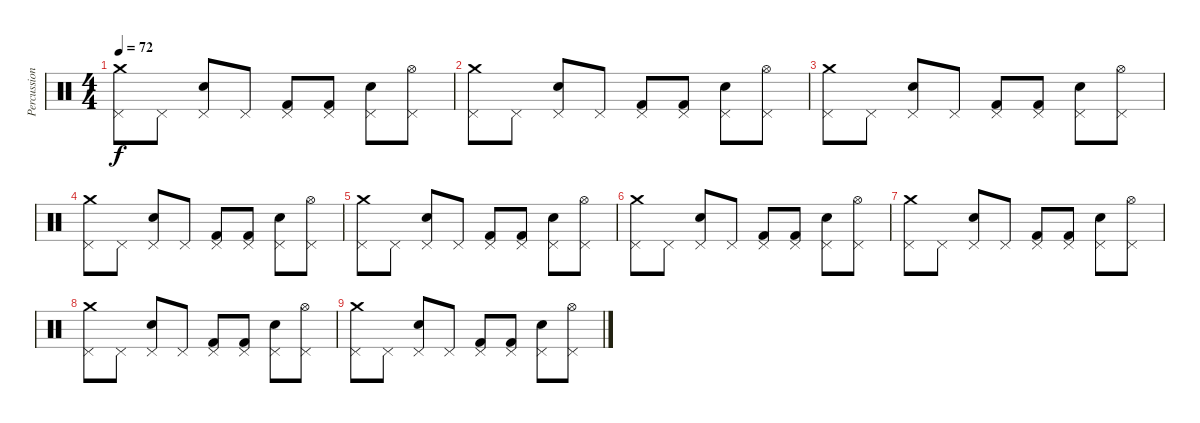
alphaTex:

\track ("Percussion" "Percussion") {instrument percussion}
\staff {score}
\articulation defaults
\ts (4 4)
\tempo 72
\clef neutral
\ks c
("Pedal Hi-Hat (hit)" "Crash medium (hit)").8{dy f} "Pedal Hi-Hat (hit)".8 ("Pedal Hi-Hat (hit)" "Snare (hit) 2").8 "Pedal Hi-Hat (hit)".8 ("Pedal Hi-Hat (hit)" "Kick (hit) 2").8 ("Pedal Hi-Hat (hit)" "Kick (hit) 2").8 ("Pedal Hi-Hat (hit)" "Snare (hit) 2").8 ("Pedal Hi-Hat (hit)" "Hi-Hat (open)").8 |
("Pedal Hi-Hat (hit)" "Crash medium (hit)").8 "Pedal Hi-Hat (hit)".8 ("Pedal Hi-Hat (hit)" "Snare (hit) 2").8 "Pedal Hi-Hat (hit)".8 ("Pedal Hi-Hat (hit)" "Kick (hit) 2").8 ("Pedal Hi-Hat (hit)" "Kick (hit) 2").8 ("Pedal Hi-Hat (hit)" "Snare (hit) 2").8 ("Pedal Hi-Hat (hit)" "Hi-Hat (open)").8 |
("Pedal Hi-Hat (hit)" "Crash medium (hit)").8 "Pedal Hi-Hat (hit)".8 ("Pedal Hi-Hat (hit)" "Snare (hit) 2").8 "Pedal Hi-Hat (hit)".8 ("Pedal Hi-Hat (hit)" "Kick (hit) 2").8 ("Pedal Hi-Hat (hit)" "Kick (hit) 2").8 ("Pedal Hi-Hat (hit)" "Snare (hit) 2").8 ("Pedal Hi-Hat (hit)" "Hi-Hat (open)").8 |
("Pedal Hi-Hat (hit)" "Crash medium (hit)").8 "Pedal Hi-Hat (hit)".8 ("Pedal Hi-Hat (hit)" "Snare (hit) 2").8 "Pedal Hi-Hat (hit)".8 ("Pedal Hi-Hat (hit)" "Kick (hit) 2").8 ("Pedal Hi-Hat (hit)" "Kick (hit) 2").8 ("Pedal Hi-Hat (hit)" "Snare (hit) 2").8 ("Pedal Hi-Hat (hit)" "Hi-Hat (open)").8 |
("Pedal Hi-Hat (hit)" "Crash medium (hit)").8 "Pedal Hi-Hat (hit)".8 ("Pedal Hi-Hat (hit)" "Snare (hit) 2").8 "Pedal Hi-Hat (hit)".8 ("Pedal Hi-Hat (hit)" "Kick (hit) 2").8 ("Pedal Hi-Hat (hit)" "Kick (hit) 2").8 ("Pedal Hi-Hat (hit)" "Snare (hit) 2").8 ("Pedal Hi-Hat (hit)" "Hi-Hat (open)").8 |
("Pedal Hi-Hat (hit)" "Crash medium (hit)").8 "Pedal Hi-Hat (hit)".8 ("Pedal Hi-Hat (hit)" "Snare (hit) 2").8 "Pedal Hi-Hat (hit)".8 ("Pedal Hi-Hat (hit)" "Kick (hit) 2").8 ("Pedal Hi-Hat (hit)" "Kick (hit) 2").8 ("Pedal Hi-Hat (hit)" "Snare (hit) 2").8 ("Pedal Hi-Hat (hit)" "Hi-Hat (open)").8 |
("Pedal Hi-Hat (hit)" "Crash medium (hit)").8 "Pedal Hi-Hat (hit)".8 ("Pedal Hi-Hat (hit)" "Snare (hit) 2").8 "Pedal Hi-Hat (hit)".8 ("Pedal Hi-Hat (hit)" "Kick (hit) 2").8 ("Pedal Hi-Hat (hit)" "Kick (hit) 2").8 ("Pedal Hi-Hat (hit)" "Snare (hit) 2").8 ("Pedal Hi-Hat (hit)" "Hi-Hat (open)").8 |
("Pedal Hi-Hat (hit)" "Crash medium (hit)").8 "Pedal Hi-Hat (hit)".8 ("Pedal Hi-Hat (hit)" "Snare (hit) 2").8 "Pedal Hi-Hat (hit)".8 ("Pedal Hi-Hat (hit)" "Kick (hit) 2").8 ("Pedal Hi-Hat (hit)" "Kick (hit) 2").8 ("Pedal Hi-Hat (hit)" "Snare (hit) 2").8 ("Pedal Hi-Hat (hit)" "Hi-Hat (open)").8 |
("Pedal Hi-Hat (hit)" "Crash medium (hit)").8 "Pedal Hi-Hat (hit)".8 ("Pedal Hi-Hat (hit)" "Snare (hit) 2").8 "Pedal Hi-Hat (hit)".8 ("Pedal Hi-Hat (hit)" "Kick (hit) 2").8 ("Pedal Hi-Hat (hit)" "Kick (hit) 2").8 ("Pedal Hi-Hat (hit)" "Snare (hit) 2").8 ("Pedal Hi-Hat (hit)" "Hi-Hat (open)").8
